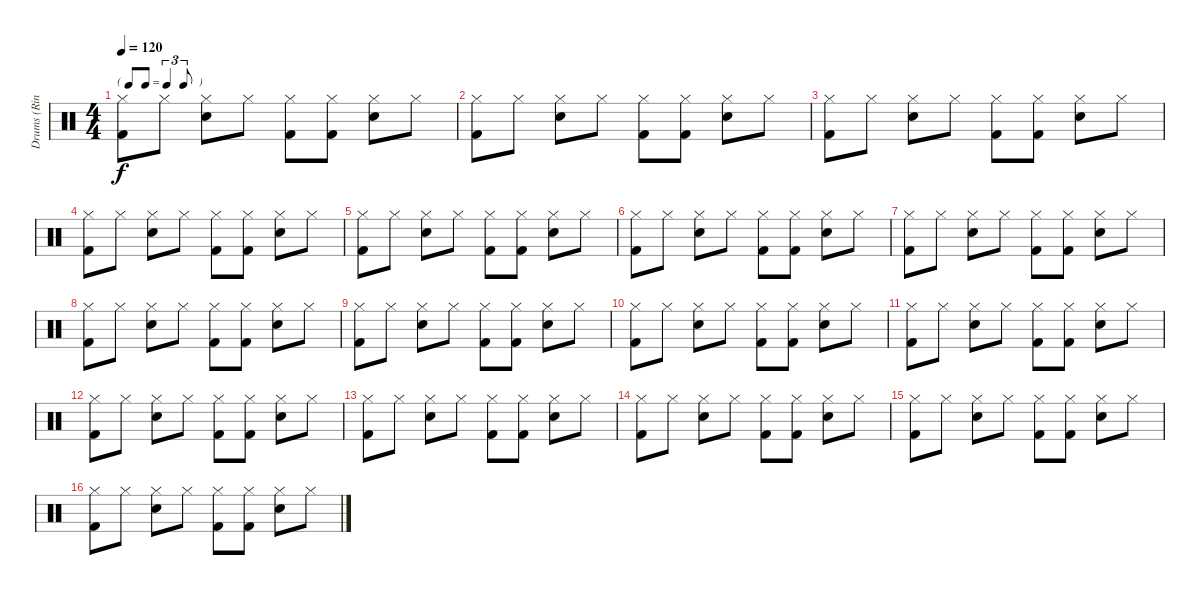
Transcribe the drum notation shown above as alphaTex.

\track ("Drums (Ringo Starr)" "Drums (Rin") {instrument percussion}
\staff {score}
\articulation defaults
\ts (4 4)
\tf triplet8th
\tempo 120
\clef neutral
\ks c
("Hi-Hat (closed)" "Kick (hit) 2").8{dy f} "Hi-Hat (closed)".8 ("Hi-Hat (closed)" "Snare (hit) 2").8 "Hi-Hat (closed)".8 ("Hi-Hat (closed)" "Kick (hit) 2").8 ("Hi-Hat (closed)" "Kick (hit) 2").8 ("Hi-Hat (closed)" "Snare (hit) 2").8 "Hi-Hat (closed)".8 |
("Hi-Hat (closed)" "Kick (hit) 2").8 "Hi-Hat (closed)".8 ("Hi-Hat (closed)" "Snare (hit) 2").8 "Hi-Hat (closed)".8 ("Hi-Hat (closed)" "Kick (hit) 2").8 ("Hi-Hat (closed)" "Kick (hit) 2").8 ("Hi-Hat (closed)" "Snare (hit) 2").8 "Hi-Hat (closed)".8 |
("Hi-Hat (closed)" "Kick (hit) 2").8 "Hi-Hat (closed)".8 ("Hi-Hat (closed)" "Snare (hit) 2").8 "Hi-Hat (closed)".8 ("Hi-Hat (closed)" "Kick (hit) 2").8 ("Hi-Hat (closed)" "Kick (hit) 2").8 ("Hi-Hat (closed)" "Snare (hit) 2").8 "Hi-Hat (closed)".8 |
("Hi-Hat (closed)" "Kick (hit) 2").8 "Hi-Hat (closed)".8 ("Hi-Hat (closed)" "Snare (hit) 2").8 "Hi-Hat (closed)".8 ("Hi-Hat (closed)" "Kick (hit) 2").8 ("Hi-Hat (closed)" "Kick (hit) 2").8 ("Hi-Hat (closed)" "Snare (hit) 2").8 "Hi-Hat (closed)".8 |
("Hi-Hat (closed)" "Kick (hit) 2").8 "Hi-Hat (closed)".8 ("Hi-Hat (closed)" "Snare (hit) 2").8 "Hi-Hat (closed)".8 ("Hi-Hat (closed)" "Kick (hit) 2").8 ("Hi-Hat (closed)" "Kick (hit) 2").8 ("Hi-Hat (closed)" "Snare (hit) 2").8 "Hi-Hat (closed)".8 |
("Hi-Hat (closed)" "Kick (hit) 2").8 "Hi-Hat (closed)".8 ("Hi-Hat (closed)" "Snare (hit) 2").8 "Hi-Hat (closed)".8 ("Hi-Hat (closed)" "Kick (hit) 2").8 ("Hi-Hat (closed)" "Kick (hit) 2").8 ("Hi-Hat (closed)" "Snare (hit) 2").8 "Hi-Hat (closed)".8 |
("Hi-Hat (closed)" "Kick (hit) 2").8 "Hi-Hat (closed)".8 ("Hi-Hat (closed)" "Snare (hit) 2").8 "Hi-Hat (closed)".8 ("Hi-Hat (closed)" "Kick (hit) 2").8 ("Hi-Hat (closed)" "Kick (hit) 2").8 ("Hi-Hat (closed)" "Snare (hit) 2").8 "Hi-Hat (closed)".8 |
("Hi-Hat (closed)" "Kick (hit) 2").8 "Hi-Hat (closed)".8 ("Hi-Hat (closed)" "Snare (hit) 2").8 "Hi-Hat (closed)".8 ("Hi-Hat (closed)" "Kick (hit) 2").8 ("Hi-Hat (closed)" "Kick (hit) 2").8 ("Hi-Hat (closed)" "Snare (hit) 2").8 "Hi-Hat (closed)".8 |
("Hi-Hat (closed)" "Kick (hit) 2").8 "Hi-Hat (closed)".8 ("Hi-Hat (closed)" "Snare (hit) 2").8 "Hi-Hat (closed)".8 ("Hi-Hat (closed)" "Kick (hit) 2").8 ("Hi-Hat (closed)" "Kick (hit) 2").8 ("Hi-Hat (closed)" "Snare (hit) 2").8 "Hi-Hat (closed)".8 |
("Hi-Hat (closed)" "Kick (hit) 2").8 "Hi-Hat (closed)".8 ("Hi-Hat (closed)" "Snare (hit) 2").8 "Hi-Hat (closed)".8 ("Hi-Hat (closed)" "Kick (hit) 2").8 ("Hi-Hat (closed)" "Kick (hit) 2").8 ("Hi-Hat (closed)" "Snare (hit) 2").8 "Hi-Hat (closed)".8 |
("Hi-Hat (closed)" "Kick (hit) 2").8 "Hi-Hat (closed)".8 ("Hi-Hat (closed)" "Snare (hit) 2").8 "Hi-Hat (closed)".8 ("Hi-Hat (closed)" "Kick (hit) 2").8 ("Hi-Hat (closed)" "Kick (hit) 2").8 ("Hi-Hat (closed)" "Snare (hit) 2").8 "Hi-Hat (closed)".8 |
("Hi-Hat (closed)" "Kick (hit) 2").8 "Hi-Hat (closed)".8 ("Hi-Hat (closed)" "Snare (hit) 2").8 "Hi-Hat (closed)".8 ("Hi-Hat (closed)" "Kick (hit) 2").8 ("Hi-Hat (closed)" "Kick (hit) 2").8 ("Hi-Hat (closed)" "Snare (hit) 2").8 "Hi-Hat (closed)".8 |
("Hi-Hat (closed)" "Kick (hit) 2").8 "Hi-Hat (closed)".8 ("Hi-Hat (closed)" "Snare (hit) 2").8 "Hi-Hat (closed)".8 ("Hi-Hat (closed)" "Kick (hit) 2").8 ("Hi-Hat (closed)" "Kick (hit) 2").8 ("Hi-Hat (closed)" "Snare (hit) 2").8 "Hi-Hat (closed)".8 |
("Hi-Hat (closed)" "Kick (hit) 2").8 "Hi-Hat (closed)".8 ("Hi-Hat (closed)" "Snare (hit) 2").8 "Hi-Hat (closed)".8 ("Hi-Hat (closed)" "Kick (hit) 2").8 ("Hi-Hat (closed)" "Kick (hit) 2").8 ("Hi-Hat (closed)" "Snare (hit) 2").8 "Hi-Hat (closed)".8 |
("Hi-Hat (closed)" "Kick (hit) 2").8 "Hi-Hat (closed)".8 ("Hi-Hat (closed)" "Snare (hit) 2").8 "Hi-Hat (closed)".8 ("Hi-Hat (closed)" "Kick (hit) 2").8 ("Hi-Hat (closed)" "Kick (hit) 2").8 ("Hi-Hat (closed)" "Snare (hit) 2").8 "Hi-Hat (closed)".8 |
("Hi-Hat (closed)" "Kick (hit) 2").8 "Hi-Hat (closed)".8 ("Hi-Hat (closed)" "Snare (hit) 2").8 "Hi-Hat (closed)".8 ("Hi-Hat (closed)" "Kick (hit) 2").8 ("Hi-Hat (closed)" "Kick (hit) 2").8 ("Hi-Hat (closed)" "Snare (hit) 2").8 "Hi-Hat (closed)".8
